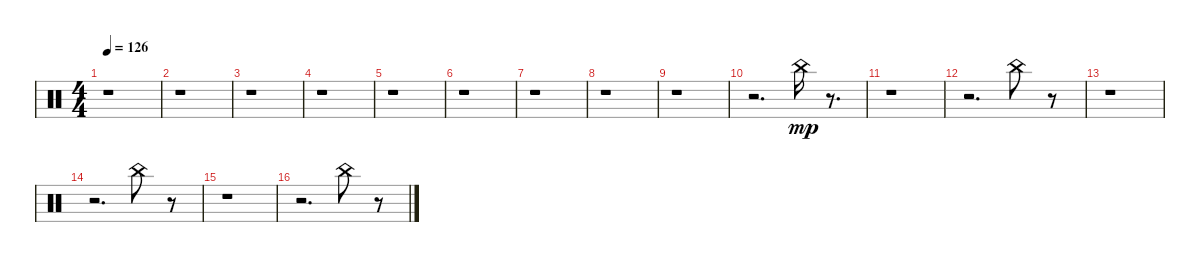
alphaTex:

\track "" {instrument percussion}
\staff {score}
\articulation defaults
\ts (4 4)
\tempo 126
\clef neutral
\ks c
r.1{dy mp} |
r.1 |
r.1 |
r.1 |
r.1 |
r.1 |
r.1 |
r.1 |
r.1 |
r.2{d} "China (hit)".16 r.8{d} |
r.1 |
r.2{d} "China (hit)".8 r.8 |
r.1 |
r.2{d} "China (hit)".8 r.8 |
r.1 |
r.2{d} "China (hit)".8 r.8
